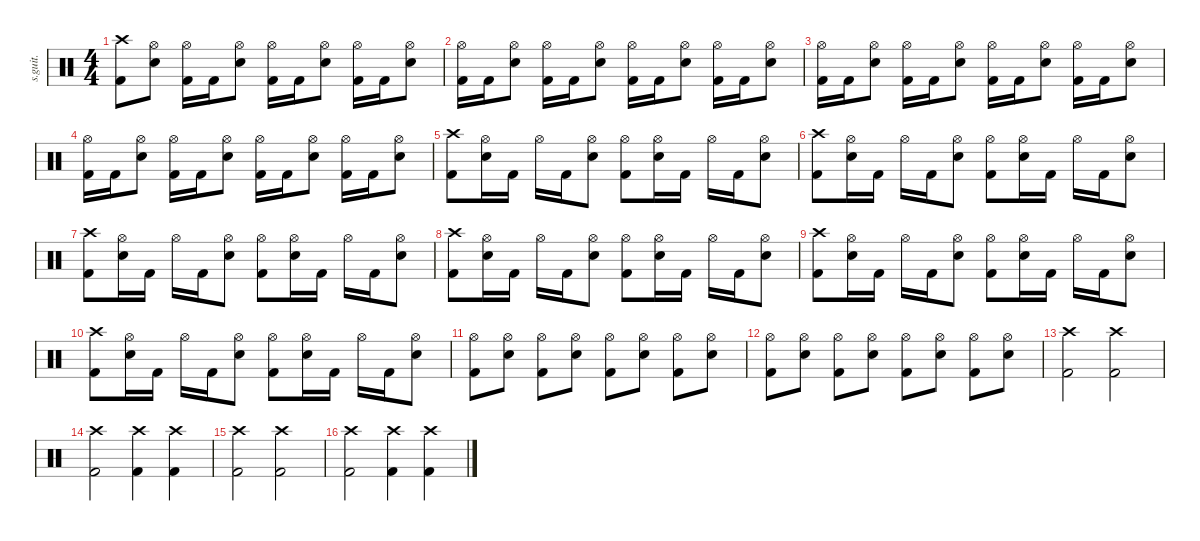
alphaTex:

\defaultSystemsLayout 4
\hideDynamics
\bracketExtendMode nobrackets
\track ("" "s.guit.") {instrument percussion}
\staff {score}
\articulation defaults
\ts (4 4)
\tempo (160 hide)
\clef neutral
\ks c
("Crash high (hit)" "Kick (hit) 2").8{dy f} ("Hi-Hat (open)" "Snare (hit) 2").8 ("Hi-Hat (open)" "Kick (hit) 2").16 "Kick (hit) 2".16 ("Hi-Hat (open)" "Snare (hit) 2").8 ("Hi-Hat (open)" "Kick (hit) 2").16 "Kick (hit) 2".16 ("Hi-Hat (open)" "Snare (hit) 2").8 ("Hi-Hat (open)" "Kick (hit) 2").16 "Kick (hit) 2".16 ("Hi-Hat (open)" "Snare (hit) 2").8 |
("Hi-Hat (open)" "Kick (hit) 2").16 "Kick (hit) 2".16 ("Hi-Hat (open)" "Snare (hit) 2").8 ("Hi-Hat (open)" "Kick (hit) 2").16 "Kick (hit) 2".16 ("Hi-Hat (open)" "Snare (hit) 2").8 ("Hi-Hat (open)" "Kick (hit) 2").16 "Kick (hit) 2".16 ("Hi-Hat (open)" "Snare (hit) 2").8 ("Hi-Hat (open)" "Kick (hit) 2").16 "Kick (hit) 2".16 ("Hi-Hat (open)" "Snare (hit) 2").8 |
("Hi-Hat (open)" "Kick (hit) 2").16 "Kick (hit) 2".16 ("Hi-Hat (open)" "Snare (hit) 2").8 ("Hi-Hat (open)" "Kick (hit) 2").16 "Kick (hit) 2".16 ("Hi-Hat (open)" "Snare (hit) 2").8 ("Hi-Hat (open)" "Kick (hit) 2").16 "Kick (hit) 2".16 ("Hi-Hat (open)" "Snare (hit) 2").8 ("Hi-Hat (open)" "Kick (hit) 2").16 "Kick (hit) 2".16 ("Hi-Hat (open)" "Snare (hit) 2").8 |
("Hi-Hat (open)" "Kick (hit) 2").16 "Kick (hit) 2".16 ("Hi-Hat (open)" "Snare (hit) 2").8 ("Hi-Hat (open)" "Kick (hit) 2").16 "Kick (hit) 2".16 ("Hi-Hat (open)" "Snare (hit) 2").8 ("Hi-Hat (open)" "Kick (hit) 2").16 "Kick (hit) 2".16 ("Hi-Hat (open)" "Snare (hit) 2").8 ("Hi-Hat (open)" "Kick (hit) 2").16 "Kick (hit) 2".16 ("Hi-Hat (open)" "Snare (hit) 2").8 |
("Crash high (hit)" "Kick (hit) 2").8 ("Hi-Hat (open)" "Snare (hit) 2").16 "Kick (hit) 2".16 "Hi-Hat (open)".16 "Kick (hit) 2".16 ("Hi-Hat (open)" "Snare (hit) 2").8 ("Hi-Hat (open)" "Kick (hit) 2").8 ("Hi-Hat (open)" "Snare (hit) 2").16 "Kick (hit) 2".16 "Hi-Hat (open)".16 "Kick (hit) 2".16 ("Hi-Hat (open)" "Snare (hit) 2").8 |
("Crash high (hit)" "Kick (hit) 2").8 ("Hi-Hat (open)" "Snare (hit) 2").16 "Kick (hit) 2".16 "Hi-Hat (open)".16 "Kick (hit) 2".16 ("Hi-Hat (open)" "Snare (hit) 2").8 ("Hi-Hat (open)" "Kick (hit) 2").8 ("Hi-Hat (open)" "Snare (hit) 2").16 "Kick (hit) 2".16 "Hi-Hat (open)".16 "Kick (hit) 2".16 ("Hi-Hat (open)" "Snare (hit) 2").8 |
("Crash high (hit)" "Kick (hit) 2").8 ("Hi-Hat (open)" "Snare (hit) 2").16 "Kick (hit) 2".16 "Hi-Hat (open)".16 "Kick (hit) 2".16 ("Hi-Hat (open)" "Snare (hit) 2").8 ("Hi-Hat (open)" "Kick (hit) 2").8 ("Hi-Hat (open)" "Snare (hit) 2").16 "Kick (hit) 2".16 "Hi-Hat (open)".16 "Kick (hit) 2".16 ("Hi-Hat (open)" "Snare (hit) 2").8 |
("Crash high (hit)" "Kick (hit) 2").8 ("Hi-Hat (open)" "Snare (hit) 2").16 "Kick (hit) 2".16 "Hi-Hat (open)".16 "Kick (hit) 2".16 ("Hi-Hat (open)" "Snare (hit) 2").8 ("Hi-Hat (open)" "Kick (hit) 2").8 ("Hi-Hat (open)" "Snare (hit) 2").16 "Kick (hit) 2".16 "Hi-Hat (open)".16 "Kick (hit) 2".16 ("Hi-Hat (open)" "Snare (hit) 2").8 |
("Crash high (hit)" "Kick (hit) 2").8 ("Hi-Hat (open)" "Snare (hit) 2").16 "Kick (hit) 2".16 "Hi-Hat (open)".16 "Kick (hit) 2".16 ("Hi-Hat (open)" "Snare (hit) 2").8 ("Hi-Hat (open)" "Kick (hit) 2").8 ("Hi-Hat (open)" "Snare (hit) 2").16 "Kick (hit) 2".16 "Hi-Hat (open)".16 "Kick (hit) 2".16 ("Hi-Hat (open)" "Snare (hit) 2").8 |
("Crash high (hit)" "Kick (hit) 2").8 ("Hi-Hat (open)" "Snare (hit) 2").16 "Kick (hit) 2".16 "Hi-Hat (open)".16 "Kick (hit) 2".16 ("Hi-Hat (open)" "Snare (hit) 2").8 ("Hi-Hat (open)" "Kick (hit) 2").8 ("Hi-Hat (open)" "Snare (hit) 2").16 "Kick (hit) 2".16 "Hi-Hat (open)".16 "Kick (hit) 2".16 ("Hi-Hat (open)" "Snare (hit) 2").8 |
("Hi-Hat (open)" "Kick (hit) 2").8 ("Hi-Hat (open)" "Snare (hit) 2").8 ("Hi-Hat (open)" "Kick (hit) 2").8 ("Hi-Hat (open)" "Snare (hit) 2").8 ("Hi-Hat (open)" "Kick (hit) 2").8 ("Hi-Hat (open)" "Snare (hit) 2").8 ("Hi-Hat (open)" "Kick (hit) 2").8 ("Hi-Hat (open)" "Snare (hit) 2").8 |
("Hi-Hat (open)" "Kick (hit) 2").8 ("Hi-Hat (open)" "Snare (hit) 2").8 ("Hi-Hat (open)" "Kick (hit) 2").8 ("Hi-Hat (open)" "Snare (hit) 2").8 ("Hi-Hat (open)" "Kick (hit) 2").8 ("Hi-Hat (open)" "Snare (hit) 2").8 ("Hi-Hat (open)" "Kick (hit) 2").8 ("Hi-Hat (open)" "Snare (hit) 2").8 |
("Crash high (hit)" "Kick (hit) 2").2 ("Crash high (hit)" "Kick (hit) 2").2 |
("Crash high (hit)" "Kick (hit) 2").2 ("Crash high (hit)" "Kick (hit) 2").4 ("Crash high (hit)" "Kick (hit) 2").4 |
("Crash high (hit)" "Kick (hit) 2").2 ("Crash high (hit)" "Kick (hit) 2").2 |
("Crash high (hit)" "Kick (hit) 2").2 ("Crash high (hit)" "Kick (hit) 2").4 ("Crash high (hit)" "Kick (hit) 2").4
